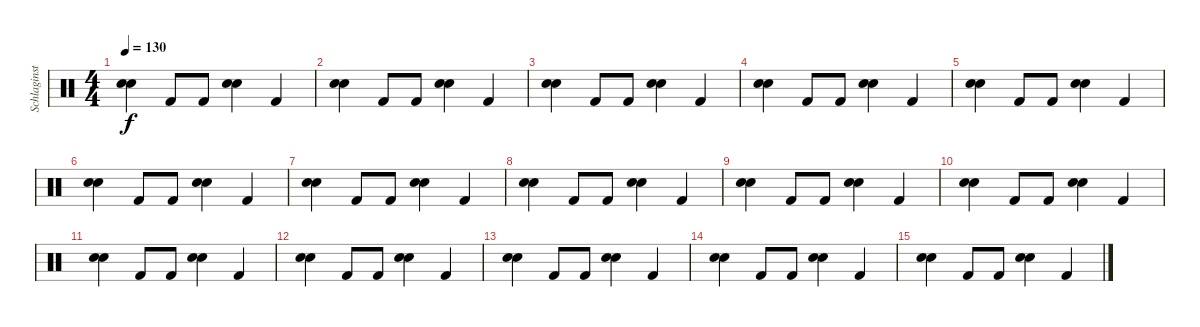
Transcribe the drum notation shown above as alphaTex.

\track ("Schlaginstrumente - Auswahl" "Schlaginst") {instrument percussion}
\staff {score}
\articulation defaults
\ts (4 4)
\tempo 130
\clef neutral
\ks c
("Snare (hit) 2" "Electric Snare (hit)").4{dy f} "Kick (hit) 2".8 "Kick (hit) 2".8 ("Snare (hit) 2" "Electric Snare (hit)").4 "Kick (hit) 2".4 |
("Snare (hit) 2" "Electric Snare (hit)").4 "Kick (hit) 2".8 "Kick (hit) 2".8 ("Snare (hit) 2" "Electric Snare (hit)").4 "Kick (hit) 2".4 |
("Snare (hit) 2" "Electric Snare (hit)").4 "Kick (hit) 2".8 "Kick (hit) 2".8 ("Snare (hit) 2" "Electric Snare (hit)").4 "Kick (hit) 2".4 |
("Snare (hit) 2" "Electric Snare (hit)").4 "Kick (hit) 2".8 "Kick (hit) 2".8 ("Snare (hit) 2" "Electric Snare (hit)").4 "Kick (hit) 2".4 |
("Snare (hit) 2" "Electric Snare (hit)").4 "Kick (hit) 2".8 "Kick (hit) 2".8 ("Snare (hit) 2" "Electric Snare (hit)").4 "Kick (hit) 2".4 |
("Snare (hit) 2" "Electric Snare (hit)").4 "Kick (hit) 2".8 "Kick (hit) 2".8 ("Snare (hit) 2" "Electric Snare (hit)").4 "Kick (hit) 2".4 |
("Snare (hit) 2" "Electric Snare (hit)").4 "Kick (hit) 2".8 "Kick (hit) 2".8 ("Snare (hit) 2" "Electric Snare (hit)").4 "Kick (hit) 2".4 |
("Snare (hit) 2" "Electric Snare (hit)").4 "Kick (hit) 2".8 "Kick (hit) 2".8 ("Snare (hit) 2" "Electric Snare (hit)").4 "Kick (hit) 2".4 |
("Snare (hit) 2" "Electric Snare (hit)").4 "Kick (hit) 2".8 "Kick (hit) 2".8 ("Snare (hit) 2" "Electric Snare (hit)").4 "Kick (hit) 2".4 |
("Snare (hit) 2" "Electric Snare (hit)").4 "Kick (hit) 2".8 "Kick (hit) 2".8 ("Snare (hit) 2" "Electric Snare (hit)").4 "Kick (hit) 2".4 |
("Snare (hit) 2" "Electric Snare (hit)").4 "Kick (hit) 2".8 "Kick (hit) 2".8 ("Snare (hit) 2" "Electric Snare (hit)").4 "Kick (hit) 2".4 |
("Snare (hit) 2" "Electric Snare (hit)").4 "Kick (hit) 2".8 "Kick (hit) 2".8 ("Snare (hit) 2" "Electric Snare (hit)").4 "Kick (hit) 2".4 |
("Snare (hit) 2" "Electric Snare (hit)").4 "Kick (hit) 2".8 "Kick (hit) 2".8 ("Snare (hit) 2" "Electric Snare (hit)").4 "Kick (hit) 2".4 |
("Snare (hit) 2" "Electric Snare (hit)").4 "Kick (hit) 2".8 "Kick (hit) 2".8 ("Snare (hit) 2" "Electric Snare (hit)").4 "Kick (hit) 2".4 |
("Snare (hit) 2" "Electric Snare (hit)").4 "Kick (hit) 2".8 "Kick (hit) 2".8 ("Snare (hit) 2" "Electric Snare (hit)").4 "Kick (hit) 2".4
